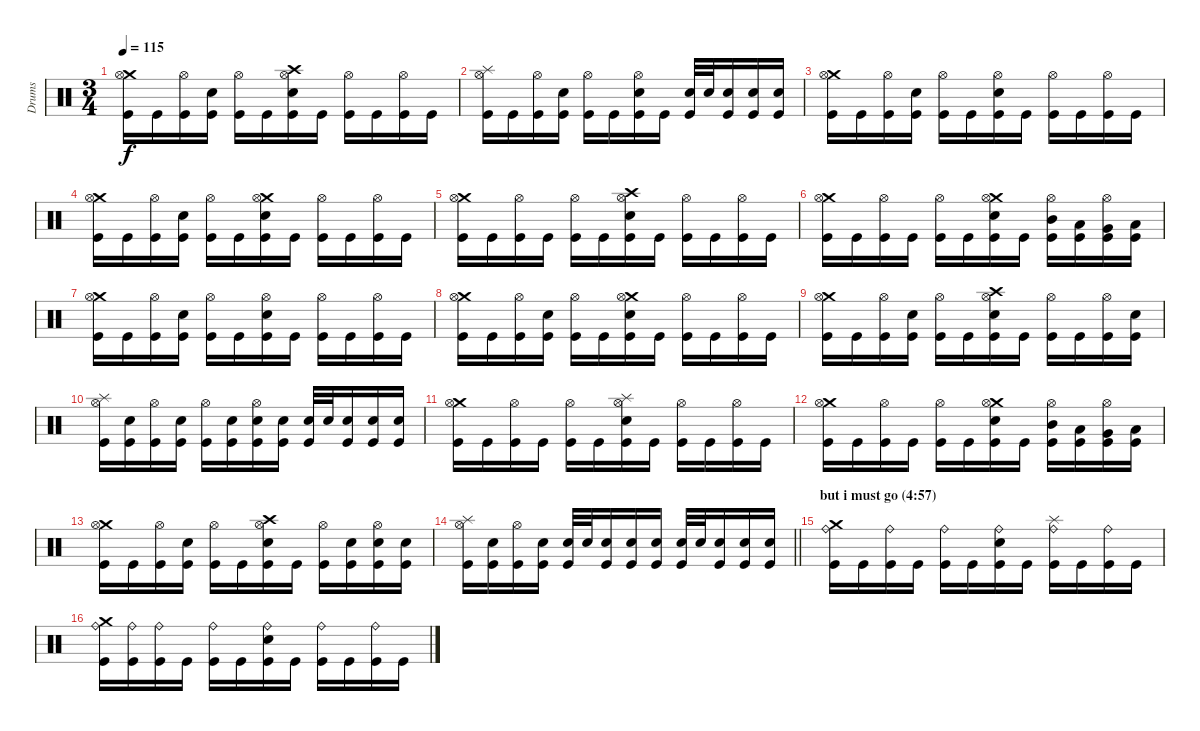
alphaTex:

\track ("Drums" "Drums") {instrument percussion}
\staff {score}
\articulation defaults
\ts (3 4)
\tempo 115
\clef neutral
\ks c
("Crash medium (hit)" "Hi-Hat (open)" "Kick (hit)").16{dy f} "Kick (hit)".16 ("Hi-Hat (open)" "Kick (hit)").16 ("Electric Snare (hit)" "Kick (hit)").16 ("Hi-Hat (open)" "Kick (hit)").16 "Kick (hit)".16 ("Crash high (hit)" "Hi-Hat (open)" "Electric Snare (hit)" "Kick (hit)").16 "Kick (hit)".16 ("Hi-Hat (open)" "Kick (hit)").16 "Kick (hit)".16 ("Hi-Hat (open)" "Kick (hit)").16 "Kick (hit)".16 |
("Splash (hit)" "Hi-Hat (open)" "Kick (hit)").16 "Kick (hit)".16 ("Hi-Hat (open)" "Kick (hit)").16 ("Electric Snare (hit)" "Kick (hit)").16 ("Hi-Hat (open)" "Kick (hit)").16 "Kick (hit)".16 ("Hi-Hat (open)" "Electric Snare (hit)" "Kick (hit)").16 "Kick (hit)".16 ("Electric Snare (hit)" "Kick (hit)").32 "Electric Snare (hit)".32 ("Electric Snare (hit)" "Kick (hit)").16 ("Electric Snare (hit)" "Kick (hit)").16 ("Electric Snare (hit)" "Kick (hit)").16 |
("Crash medium (hit)" "Hi-Hat (open)" "Kick (hit)").16 "Kick (hit)".16 ("Hi-Hat (open)" "Kick (hit)").16 ("Electric Snare (hit)" "Kick (hit)").16 ("Hi-Hat (open)" "Kick (hit)").16 "Kick (hit)".16 ("Hi-Hat (open)" "Electric Snare (hit)" "Kick (hit)").16 "Kick (hit)".16 ("Hi-Hat (open)" "Kick (hit)").16 "Kick (hit)".16 ("Hi-Hat (open)" "Kick (hit)").16 "Kick (hit)".16 |
("Crash medium (hit)" "Hi-Hat (open)" "Kick (hit)").16 "Kick (hit)".16 ("Hi-Hat (open)" "Kick (hit)").16 ("Electric Snare (hit)" "Kick (hit)").16 ("Hi-Hat (open)" "Kick (hit)").16 "Kick (hit)".16 ("Crash medium (hit)" "Hi-Hat (open)" "Electric Snare (hit)" "Kick (hit)").16 "Kick (hit)".16 ("Hi-Hat (open)" "Kick (hit)").16 "Kick (hit)".16 ("Hi-Hat (open)" "Kick (hit)").16 "Kick (hit)".16 |
("Crash medium (hit)" "Hi-Hat (open)" "Kick (hit)").16 "Kick (hit)".16 ("Hi-Hat (open)" "Kick (hit)").16 "Kick (hit)".16 ("Hi-Hat (open)" "Kick (hit)").16 "Kick (hit)".16 ("Crash high (hit)" "Hi-Hat (open)" "Electric Snare (hit)" "Kick (hit)").16 "Kick (hit)".16 ("Hi-Hat (open)" "Kick (hit)").16 "Kick (hit)".16 ("Hi-Hat (open)" "Kick (hit)").16 "Kick (hit)".16 |
("Crash medium (hit)" "Hi-Hat (open)" "Kick (hit)").16 "Kick (hit)".16 ("Hi-Hat (open)" "Kick (hit)").16 "Kick (hit)".16 ("Hi-Hat (open)" "Kick (hit)").16 "Kick (hit)".16 ("Crash medium (hit)" "Hi-Hat (open)" "Electric Snare (hit)" "Kick (hit)").16 "Kick (hit)".16 ("Mid Tom (hit)" "Hi-Hat (open)" "Kick (hit)").16 ("Low Tom (hit)" "Kick (hit)").16 ("Very Low Tom (hit)" "Hi-Hat (open)" "Kick (hit)").16 ("Low Floor Tom (hit)" "Kick (hit)").16 |
("Crash medium (hit)" "Hi-Hat (open)" "Kick (hit)").16 "Kick (hit)".16 ("Hi-Hat (open)" "Kick (hit)").16 ("Electric Snare (hit)" "Kick (hit)").16 ("Hi-Hat (open)" "Kick (hit)").16 "Kick (hit)".16 ("Hi-Hat (open)" "Electric Snare (hit)" "Kick (hit)").16 "Kick (hit)".16 ("Hi-Hat (open)" "Kick (hit)").16 "Kick (hit)".16 ("Hi-Hat (open)" "Kick (hit)").16 "Kick (hit)".16 |
("Crash medium (hit)" "Hi-Hat (open)" "Kick (hit)").16 "Kick (hit)".16 ("Hi-Hat (open)" "Kick (hit)").16 ("Electric Snare (hit)" "Kick (hit)").16 ("Hi-Hat (open)" "Kick (hit)").16 "Kick (hit)".16 ("Crash medium (hit)" "Hi-Hat (open)" "Electric Snare (hit)" "Kick (hit)").16 "Kick (hit)".16 ("Hi-Hat (open)" "Kick (hit)").16 "Kick (hit)".16 ("Hi-Hat (open)" "Kick (hit)").16 "Kick (hit)".16 |
("Crash medium (hit)" "Hi-Hat (open)" "Kick (hit)").16 "Kick (hit)".16 ("Hi-Hat (open)" "Kick (hit)").16 ("Electric Snare (hit)" "Kick (hit)").16 ("Hi-Hat (open)" "Kick (hit)").16 "Kick (hit)".16 ("Crash high (hit)" "Hi-Hat (open)" "Electric Snare (hit)" "Kick (hit)").16 "Kick (hit)".16 ("Hi-Hat (open)" "Kick (hit)").16 "Kick (hit)".16 ("Hi-Hat (open)" "Kick (hit)").16 ("Electric Snare (hit)" "Kick (hit)").16 |
("Splash (hit)" "Hi-Hat (open)" "Kick (hit)").16 ("Electric Snare (hit)" "Kick (hit)").16 ("Hi-Hat (open)" "Kick (hit)").16 ("Electric Snare (hit)" "Kick (hit)").16 ("Hi-Hat (open)" "Kick (hit)").16 ("Electric Snare (hit)" "Kick (hit)").16 ("Hi-Hat (open)" "Electric Snare (hit)" "Kick (hit)").16 ("Electric Snare (hit)" "Kick (hit)").16 ("Electric Snare (hit)" "Kick (hit)").32 "Electric Snare (hit)".32 ("Electric Snare (hit)" "Kick (hit)").16 ("Electric Snare (hit)" "Kick (hit)").16 ("Electric Snare (hit)" "Kick (hit)").16 |
("Crash medium (hit)" "Hi-Hat (open)" "Kick (hit)").16 "Kick (hit)".16 ("Hi-Hat (open)" "Kick (hit)").16 "Kick (hit)".16 ("Hi-Hat (open)" "Kick (hit)").16 "Kick (hit)".16 ("Splash (hit)" "Hi-Hat (open)" "Electric Snare (hit)" "Kick (hit)").16 "Kick (hit)".16 ("Hi-Hat (open)" "Kick (hit)").16 "Kick (hit)".16 ("Hi-Hat (open)" "Kick (hit)").16 "Kick (hit)".16 |
("Crash medium (hit)" "Hi-Hat (open)" "Kick (hit)").16 "Kick (hit)".16 ("Hi-Hat (open)" "Kick (hit)").16 "Kick (hit)".16 ("Hi-Hat (open)" "Kick (hit)").16 "Kick (hit)".16 ("Crash medium (hit)" "Hi-Hat (open)" "Electric Snare (hit)" "Kick (hit)").16 "Kick (hit)".16 ("Mid Tom (hit)" "Hi-Hat (open)" "Kick (hit)").16 ("Low Tom (hit)" "Kick (hit)").16 ("Very Low Tom (hit)" "Hi-Hat (open)" "Kick (hit)").16 ("Low Floor Tom (hit)" "Kick (hit)").16 |
("Crash medium (hit)" "Hi-Hat (open)" "Kick (hit)").16 "Kick (hit)".16 ("Hi-Hat (open)" "Kick (hit)").16 ("Electric Snare (hit)" "Kick (hit)").16 ("Hi-Hat (open)" "Kick (hit)").16 "Kick (hit)".16 ("Crash high (hit)" "Hi-Hat (open)" "Electric Snare (hit)" "Kick (hit)").16 "Kick (hit)".16 ("Hi-Hat (open)" "Kick (hit)").16 ("Electric Snare (hit)" "Kick (hit)").16 ("Hi-Hat (open)" "Electric Snare (hit)" "Kick (hit)").16 ("Electric Snare (hit)" "Kick (hit)").16 |
\barLineRight lightlight
("Splash (hit)" "Hi-Hat (open)" "Kick (hit)").16 ("Electric Snare (hit)" "Kick (hit)").16 ("Hi-Hat (open)" "Kick (hit)").16 ("Electric Snare (hit)" "Kick (hit)").16 ("Electric Snare (hit)" "Kick (hit)").32 "Electric Snare (hit)".32 ("Electric Snare (hit)" "Kick (hit)").16 ("Electric Snare (hit)" "Kick (hit)").16 ("Electric Snare (hit)" "Kick (hit)").16 ("Electric Snare (hit)" "Kick (hit)").32 "Electric Snare (hit)".32 ("Electric Snare (hit)" "Kick (hit)").16 ("Electric Snare (hit)" "Kick (hit)").16 ("Electric Snare (hit)" "Kick (hit)").16 |
\section ("" "but i must go (4:57)")
("Crash medium (hit)" "Ride (bell)" "Kick (hit)").16 "Kick (hit)".16 ("Ride (bell)" "Kick (hit)").16 "Kick (hit)".16 ("Ride (bell)" "Kick (hit)").16 "Kick (hit)".16 ("Ride (bell)" "Electric Snare (hit)" "Kick (hit)").16 "Kick (hit)".16 ("Splash (hit)" "Ride (bell)" "Kick (hit)").16 "Kick (hit)".16 ("Ride (bell)" "Kick (hit)").16 "Kick (hit)".16 |
("Crash medium (hit)" "Ride (bell)" "Kick (hit)").16 ("Ride (bell)" "Kick (hit)").16 ("Ride (bell)" "Kick (hit)").16 "Kick (hit)".16 ("Ride (bell)" "Kick (hit)").16 "Kick (hit)".16 ("Ride (bell)" "Electric Snare (hit)" "Kick (hit)").16 "Kick (hit)".16 ("Ride (bell)" "Kick (hit)").16 "Kick (hit)".16 ("Ride (bell)" "Kick (hit)").16 "Kick (hit)".16
